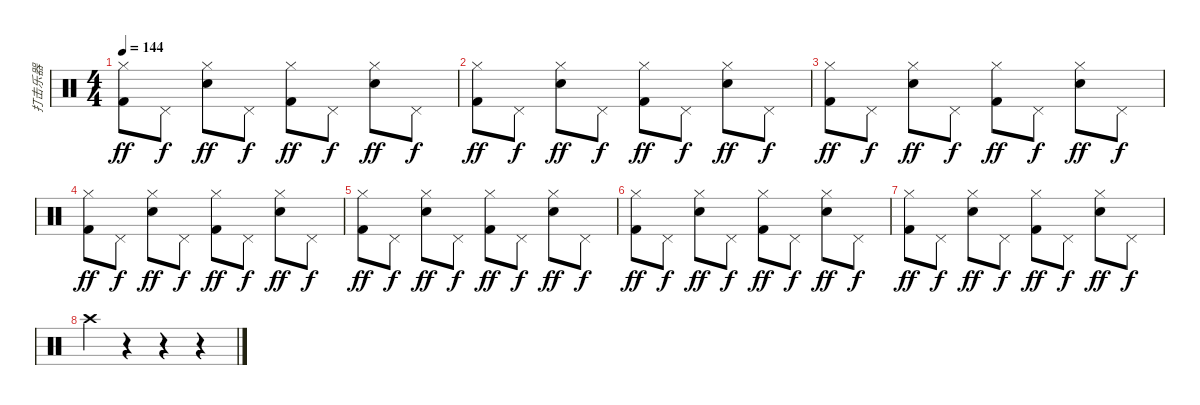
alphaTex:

\track ("打击乐器" "打击乐器") {instrument percussion}
\staff {score}
\articulation defaults
\ts (4 4)
\tempo 144
\clef neutral
\ks c
("Kick (hit) 2" "Hi-Hat (closed)").8{dy ff} "Pedal Hi-Hat (hit)".8{dy f} ("Snare (hit) 2" "Hi-Hat (closed)").8{dy ff} "Pedal Hi-Hat (hit)".8{dy f} ("Kick (hit) 2" "Hi-Hat (closed)").8{dy ff} "Pedal Hi-Hat (hit)".8{dy f} ("Snare (hit) 2" "Hi-Hat (closed)").8{dy ff} "Pedal Hi-Hat (hit)".8{dy f} |
("Kick (hit) 2" "Hi-Hat (closed)").8{dy ff} "Pedal Hi-Hat (hit)".8{dy f} ("Snare (hit) 2" "Hi-Hat (closed)").8{dy ff} "Pedal Hi-Hat (hit)".8{dy f} ("Kick (hit) 2" "Hi-Hat (closed)").8{dy ff} "Pedal Hi-Hat (hit)".8{dy f} ("Snare (hit) 2" "Hi-Hat (closed)").8{dy ff} "Pedal Hi-Hat (hit)".8{dy f} |
("Kick (hit) 2" "Hi-Hat (closed)").8{dy ff} "Pedal Hi-Hat (hit)".8{dy f} ("Snare (hit) 2" "Hi-Hat (closed)").8{dy ff} "Pedal Hi-Hat (hit)".8{dy f} ("Kick (hit) 2" "Hi-Hat (closed)").8{dy ff} "Pedal Hi-Hat (hit)".8{dy f} ("Snare (hit) 2" "Hi-Hat (closed)").8{dy ff} "Pedal Hi-Hat (hit)".8{dy f} |
("Kick (hit) 2" "Hi-Hat (closed)").8{dy ff} "Pedal Hi-Hat (hit)".8{dy f} ("Snare (hit) 2" "Hi-Hat (closed)").8{dy ff} "Pedal Hi-Hat (hit)".8{dy f} ("Kick (hit) 2" "Hi-Hat (closed)").8{dy ff} "Pedal Hi-Hat (hit)".8{dy f} ("Snare (hit) 2" "Hi-Hat (closed)").8{dy ff} "Pedal Hi-Hat (hit)".8{dy f} |
("Kick (hit) 2" "Hi-Hat (closed)").8{dy ff} "Pedal Hi-Hat (hit)".8{dy f} ("Snare (hit) 2" "Hi-Hat (closed)").8{dy ff} "Pedal Hi-Hat (hit)".8{dy f} ("Kick (hit) 2" "Hi-Hat (closed)").8{dy ff} "Pedal Hi-Hat (hit)".8{dy f} ("Snare (hit) 2" "Hi-Hat (closed)").8{dy ff} "Pedal Hi-Hat (hit)".8{dy f} |
("Kick (hit) 2" "Hi-Hat (closed)").8{dy ff} "Pedal Hi-Hat (hit)".8{dy f} ("Snare (hit) 2" "Hi-Hat (closed)").8{dy ff} "Pedal Hi-Hat (hit)".8{dy f} ("Kick (hit) 2" "Hi-Hat (closed)").8{dy ff} "Pedal Hi-Hat (hit)".8{dy f} ("Snare (hit) 2" "Hi-Hat (closed)").8{dy ff} "Pedal Hi-Hat (hit)".8{dy f} |
("Kick (hit) 2" "Hi-Hat (closed)").8{dy ff} "Pedal Hi-Hat (hit)".8{dy f} ("Snare (hit) 2" "Hi-Hat (closed)").8{dy ff} "Pedal Hi-Hat (hit)".8{dy f} ("Kick (hit) 2" "Hi-Hat (closed)").8{dy ff} "Pedal Hi-Hat (hit)".8{dy f} ("Snare (hit) 2" "Hi-Hat (closed)").8{dy ff} "Pedal Hi-Hat (hit)".8{dy f} |
"Crash high (hit)".4 r.4 r.4 r.4
